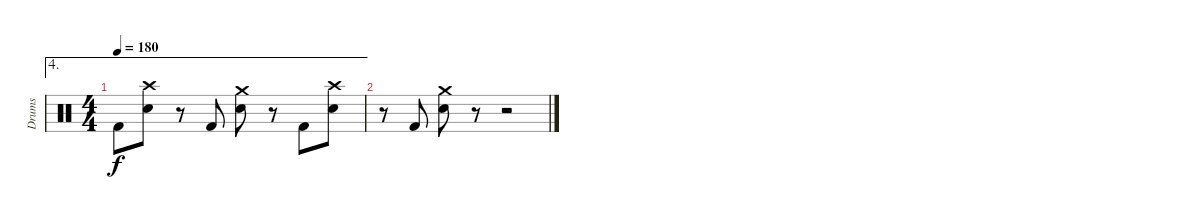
\track ("Drums" "Drums") {instrument percussion}
\staff {score}
\articulation defaults
\ae 4
\ts (4 4)
\tempo 180
\clef neutral
\ks c "Kick (hit) 2".8{dy f}
("Crash high (hit)" "Snare (hit) 2").8 r.8 "Kick (hit) 2".8 ("Crash medium (hit)" "Snare (hit) 2").8 r.8 "Kick (hit) 2".8 ("Crash high (hit)" "Snare (hit) 2").8 |
r.8 "Kick (hit) 2".8 ("Crash medium (hit)" "Snare (hit) 2").8 r.8 r.2
